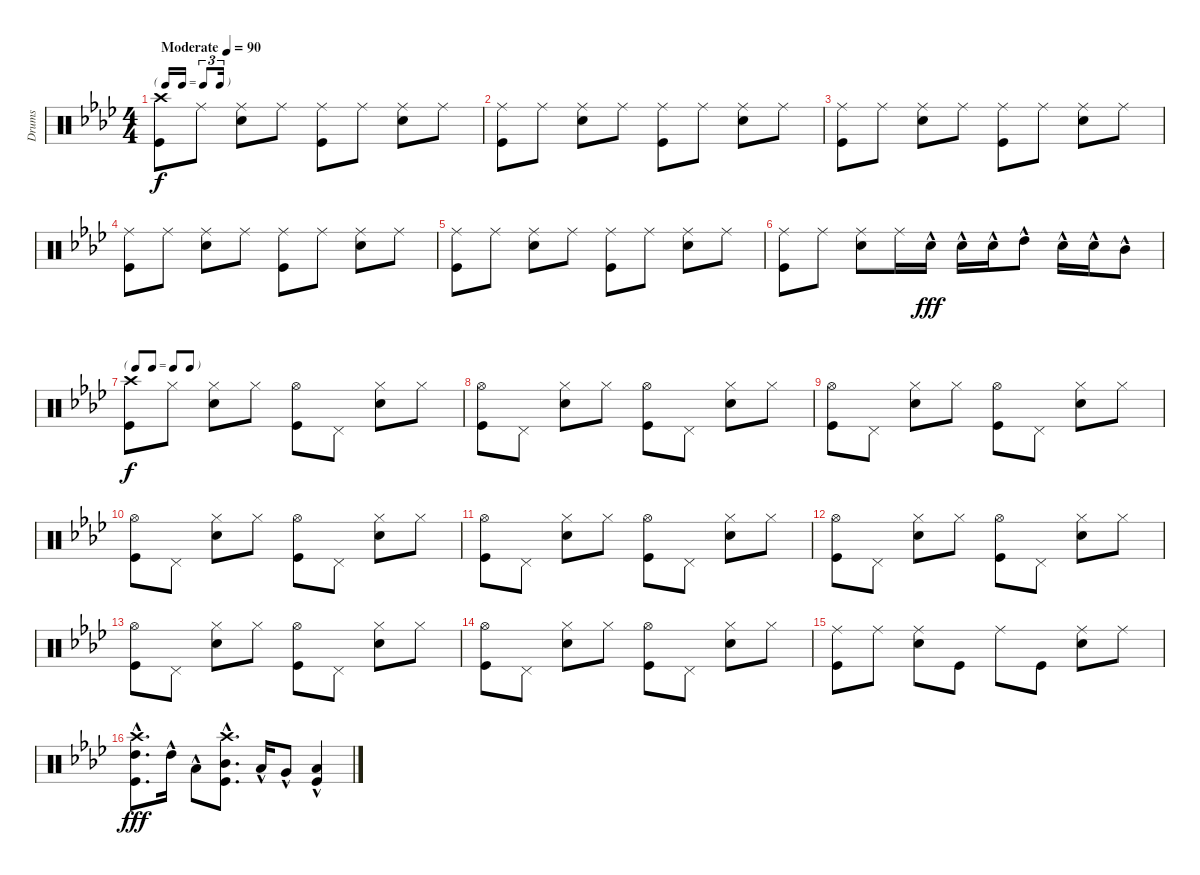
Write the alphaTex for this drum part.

\track ("Drums" "Drums") {instrument percussion}
\staff {score}
\articulation defaults
\ts (4 4)
\tf triplet16th
\tempo (90 "Moderate")
\clef neutral
\ks ab
("Crash high (hit)" "Kick (hit)").8{dy f} "Ride (middle)".8 ("Ride (middle)" "Snare (hit) 2").8 "Ride (middle)".8 ("Ride (middle)" "Kick (hit)").8 "Ride (middle)".8 ("Ride (middle)" "Snare (hit) 2").8 "Ride (middle)".8 |
("Ride (middle)" "Kick (hit)").8 "Ride (middle)".8 ("Ride (middle)" "Snare (hit) 2").8 "Ride (middle)".8 ("Ride (middle)" "Kick (hit)").8 "Ride (middle)".8 ("Ride (middle)" "Snare (hit) 2").8 "Ride (middle)".8 |
("Ride (middle)" "Kick (hit)").8 "Ride (middle)".8 ("Ride (middle)" "Snare (hit) 2").8 "Ride (middle)".8 ("Ride (middle)" "Kick (hit)").8 "Ride (middle)".8 ("Ride (middle)" "Snare (hit) 2").8 "Ride (middle)".8 |
("Ride (middle)" "Kick (hit)").8 "Ride (middle)".8 ("Ride (middle)" "Snare (hit) 2").8 "Ride (middle)".8 ("Ride (middle)" "Kick (hit)").8 "Ride (middle)".8 ("Ride (middle)" "Snare (hit) 2").8 "Ride (middle)".8 |
("Ride (middle)" "Kick (hit)").8 "Ride (middle)".8 ("Ride (middle)" "Snare (hit) 2").8 "Ride (middle)".8 ("Ride (middle)" "Kick (hit)").8 "Ride (middle)".8 ("Ride (middle)" "Snare (hit) 2").8 "Ride (middle)".8 |
("Ride (middle)" "Kick (hit)").8 "Ride (middle)".8 ("Ride (middle)" "Snare (hit) 2").8 "Ride (middle)".16 "Snare (hit) 2"{hac}.16{dy fff} "Snare (hit) 2"{hac}.16 "Snare (hit) 2"{hac}.16 "High Tom (hit)"{hac}.8 "Snare (hit) 2"{hac}.16 "Snare (hit) 2"{hac}.16 "Mid Tom (hit)"{hac}.8 |
\tf none
("Crash high (hit)" "Kick (hit)").8{dy f} "Hi-Hat (closed)".8 ("Hi-Hat (closed)" "Snare (hit) 2").8 "Hi-Hat (closed)".8 ("Hi-Hat (open)" "Kick (hit)").8 "Pedal Hi-Hat (hit)".8 ("Hi-Hat (closed)" "Snare (hit) 2").8 "Hi-Hat (closed)".8 |
("Hi-Hat (open)" "Kick (hit)").8 "Pedal Hi-Hat (hit)".8 ("Hi-Hat (closed)" "Snare (hit) 2").8 "Hi-Hat (closed)".8 ("Hi-Hat (open)" "Kick (hit)").8 "Pedal Hi-Hat (hit)".8 ("Hi-Hat (closed)" "Snare (hit) 2").8 "Hi-Hat (closed)".8 |
("Hi-Hat (open)" "Kick (hit)").8 "Pedal Hi-Hat (hit)".8 ("Hi-Hat (closed)" "Snare (hit) 2").8 "Hi-Hat (closed)".8 ("Hi-Hat (open)" "Kick (hit)").8 "Pedal Hi-Hat (hit)".8 ("Hi-Hat (closed)" "Snare (hit) 2").8 "Hi-Hat (closed)".8 |
("Hi-Hat (open)" "Kick (hit)").8 "Pedal Hi-Hat (hit)".8 ("Hi-Hat (closed)" "Snare (hit) 2").8 "Hi-Hat (closed)".8 ("Hi-Hat (open)" "Kick (hit)").8 "Pedal Hi-Hat (hit)".8 ("Hi-Hat (closed)" "Snare (hit) 2").8 "Hi-Hat (closed)".8 |
("Hi-Hat (open)" "Kick (hit)").8 "Pedal Hi-Hat (hit)".8 ("Hi-Hat (closed)" "Snare (hit) 2").8 "Hi-Hat (closed)".8 ("Hi-Hat (open)" "Kick (hit)").8 "Pedal Hi-Hat (hit)".8 ("Hi-Hat (closed)" "Snare (hit) 2").8 "Hi-Hat (closed)".8 |
("Hi-Hat (open)" "Kick (hit)").8 "Pedal Hi-Hat (hit)".8 ("Hi-Hat (closed)" "Snare (hit) 2").8 "Hi-Hat (closed)".8 ("Hi-Hat (open)" "Kick (hit)").8 "Pedal Hi-Hat (hit)".8 ("Hi-Hat (closed)" "Snare (hit) 2").8 "Hi-Hat (closed)".8 |
("Hi-Hat (open)" "Kick (hit)").8 "Pedal Hi-Hat (hit)".8 ("Hi-Hat (closed)" "Snare (hit) 2").8 "Hi-Hat (closed)".8 ("Hi-Hat (open)" "Kick (hit)").8 "Pedal Hi-Hat (hit)".8 ("Hi-Hat (closed)" "Snare (hit) 2").8 "Hi-Hat (closed)".8 |
("Hi-Hat (open)" "Kick (hit)").8 "Pedal Hi-Hat (hit)".8 ("Hi-Hat (closed)" "Snare (hit) 2").8 "Hi-Hat (closed)".8 ("Hi-Hat (open)" "Kick (hit)").8 "Pedal Hi-Hat (hit)".8 ("Hi-Hat (closed)" "Snare (hit) 2").8 "Hi-Hat (closed)".8 |
("Ride (middle)" "Kick (hit)").8 "Ride (middle)".8 ("Ride (middle)" "Snare (hit) 2").8 "Kick (hit)".8 "Ride (middle)".8 "Kick (hit)".8 ("Ride (middle)" "Snare (hit) 2").8 "Ride (middle)".8 |
("Crash high (hit)"{hac} "High Tom (hit)"{hac} "Kick (hit)"{hac}).8{d dy fff} "High Tom (hit)"{hac}.16 "Low Tom (hit)"{hac}.8 ("Crash high (hit)" "Mid Tom (hit)"{hac} "Kick (hit)").8{d} "Low Tom (hit)"{hac}.16 "Very Low Tom (hit)"{hac}.8 ("Low Tom (hit)"{hac} "Kick (hit)").4
